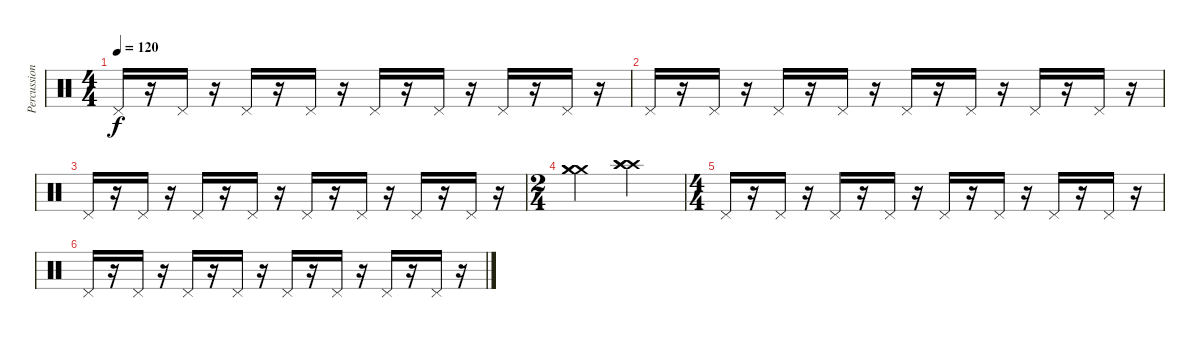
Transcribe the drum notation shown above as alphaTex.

\track ("Percussion" "Percussion") {instrument percussion}
\staff {score}
\articulation defaults
\ts (4 4)
\tempo 120
\clef neutral
\ks c "Pedal Hi-Hat (hit)".16{dy f}
r.16 "Pedal Hi-Hat (hit)".16 r.16 "Pedal Hi-Hat (hit)".16 r.16 "Pedal Hi-Hat (hit)".16 r.16 "Pedal Hi-Hat (hit)".16 r.16 "Pedal Hi-Hat (hit)".16 r.16 "Pedal Hi-Hat (hit)".16 r.16 "Pedal Hi-Hat (hit)".16 r.16 |
"Pedal Hi-Hat (hit)".16 r.16 "Pedal Hi-Hat (hit)".16 r.16 "Pedal Hi-Hat (hit)".16 r.16 "Pedal Hi-Hat (hit)".16 r.16 "Pedal Hi-Hat (hit)".16 r.16 "Pedal Hi-Hat (hit)".16 r.16 "Pedal Hi-Hat (hit)".16 r.16 "Pedal Hi-Hat (hit)".16 r.16 |
"Pedal Hi-Hat (hit)".16 r.16 "Pedal Hi-Hat (hit)".16 r.16 "Pedal Hi-Hat (hit)".16 r.16 "Pedal Hi-Hat (hit)".16 r.16 "Pedal Hi-Hat (hit)".16 r.16 "Pedal Hi-Hat (hit)".16 r.16 "Pedal Hi-Hat (hit)".16 r.16 "Pedal Hi-Hat (hit)".16 r.16 |
\ts (2 4)
("Crash medium (hit)" "Crash medium (hit)" "Crash medium (hit)").4 ("Crash high (hit)" "Crash high (hit)" "Crash high (hit)").4 |
\ts (4 4)
"Pedal Hi-Hat (hit)".16 r.16 "Pedal Hi-Hat (hit)".16 r.16 "Pedal Hi-Hat (hit)".16 r.16 "Pedal Hi-Hat (hit)".16 r.16 "Pedal Hi-Hat (hit)".16 r.16 "Pedal Hi-Hat (hit)".16 r.16 "Pedal Hi-Hat (hit)".16 r.16 "Pedal Hi-Hat (hit)".16 r.16 |
"Pedal Hi-Hat (hit)".16 r.16 "Pedal Hi-Hat (hit)".16 r.16 "Pedal Hi-Hat (hit)".16 r.16 "Pedal Hi-Hat (hit)".16 r.16 "Pedal Hi-Hat (hit)".16 r.16 "Pedal Hi-Hat (hit)".16 r.16 "Pedal Hi-Hat (hit)".16 r.16 "Pedal Hi-Hat (hit)".16 r.16
